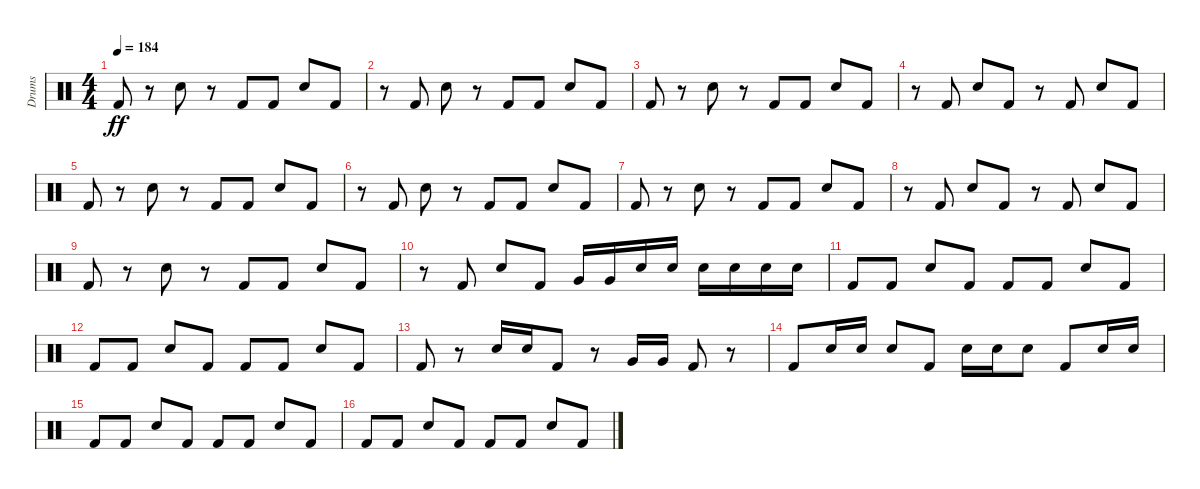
\track ("Drums" "Drums") {instrument percussion}
\staff {score}
\articulation defaults
\ts (4 4)
\tempo 184
\clef neutral
\ks c "Kick (hit) 2".8{dy ff}
r.8 "Electric Snare (hit)".8 r.8 "Kick (hit) 2".8 "Kick (hit) 2".8 "Electric Snare (hit)".8 "Kick (hit) 2".8 |
r.8 "Kick (hit) 2".8 "Electric Snare (hit)".8 r.8 "Kick (hit) 2".8 "Kick (hit) 2".8 "Electric Snare (hit)".8 "Kick (hit) 2".8 |
"Kick (hit) 2".8 r.8 "Electric Snare (hit)".8 r.8 "Kick (hit) 2".8 "Kick (hit) 2".8 "Electric Snare (hit)".8 "Kick (hit) 2".8 |
r.8 "Kick (hit) 2".8 "Electric Snare (hit)".8 "Kick (hit) 2".8 r.8 "Kick (hit) 2".8 "Electric Snare (hit)".8 "Kick (hit) 2".8 |
"Kick (hit) 2".8 r.8 "Electric Snare (hit)".8 r.8 "Kick (hit) 2".8 "Kick (hit) 2".8 "Electric Snare (hit)".8 "Kick (hit) 2".8 |
r.8 "Kick (hit) 2".8 "Electric Snare (hit)".8 r.8 "Kick (hit) 2".8 "Kick (hit) 2".8 "Electric Snare (hit)".8 "Kick (hit) 2".8 |
"Kick (hit) 2".8 r.8 "Electric Snare (hit)".8 r.8 "Kick (hit) 2".8 "Kick (hit) 2".8 "Electric Snare (hit)".8 "Kick (hit) 2".8 |
r.8 "Kick (hit) 2".8 "Electric Snare (hit)".8 "Kick (hit) 2".8 r.8 "Kick (hit) 2".8 "Electric Snare (hit)".8 "Kick (hit) 2".8 |
"Kick (hit) 2".8 r.8 "Electric Snare (hit)".8 r.8 "Kick (hit) 2".8 "Kick (hit) 2".8 "Electric Snare (hit)".8 "Kick (hit) 2".8 |
r.8 "Kick (hit) 2".8 "Electric Snare (hit)".8 "Kick (hit) 2".8 "Very Low Tom (hit)".16 "Very Low Tom (hit)".16 "Electric Snare (hit)".16 "Electric Snare (hit)".16 "Electric Snare (hit)".16 "Electric Snare (hit)".16 "Electric Snare (hit)".16 "Electric Snare (hit)".16 |
"Kick (hit) 2".8 "Kick (hit) 2".8 "Electric Snare (hit)".8 "Kick (hit) 2".8 "Kick (hit) 2".8 "Kick (hit) 2".8 "Electric Snare (hit)".8 "Kick (hit) 2".8 |
"Kick (hit) 2".8 "Kick (hit) 2".8 "Electric Snare (hit)".8 "Kick (hit) 2".8 "Kick (hit) 2".8 "Kick (hit) 2".8 "Electric Snare (hit)".8 "Kick (hit) 2".8 |
"Kick (hit) 2".8 r.8 "Electric Snare (hit)".16 "Electric Snare (hit)".16 "Kick (hit) 2".8 r.8 "Very Low Tom (hit)".16 "Very Low Tom (hit)".16 "Kick (hit) 2".8 r.8 |
"Kick (hit) 2".8 "Electric Snare (hit)".16 "Electric Snare (hit)".16 "Electric Snare (hit)".8 "Kick (hit) 2".8 "Electric Snare (hit)".16 "Electric Snare (hit)".16 "Electric Snare (hit)".8 "Kick (hit) 2".8 "Electric Snare (hit)".16 "Electric Snare (hit)".16 |
"Kick (hit) 2".8 "Kick (hit) 2".8 "Electric Snare (hit)".8 "Kick (hit) 2".8 "Kick (hit) 2".8 "Kick (hit) 2".8 "Electric Snare (hit)".8 "Kick (hit) 2".8 |
"Kick (hit) 2".8 "Kick (hit) 2".8 "Electric Snare (hit)".8 "Kick (hit) 2".8 "Kick (hit) 2".8 "Kick (hit) 2".8 "Electric Snare (hit)".8 "Kick (hit) 2".8
